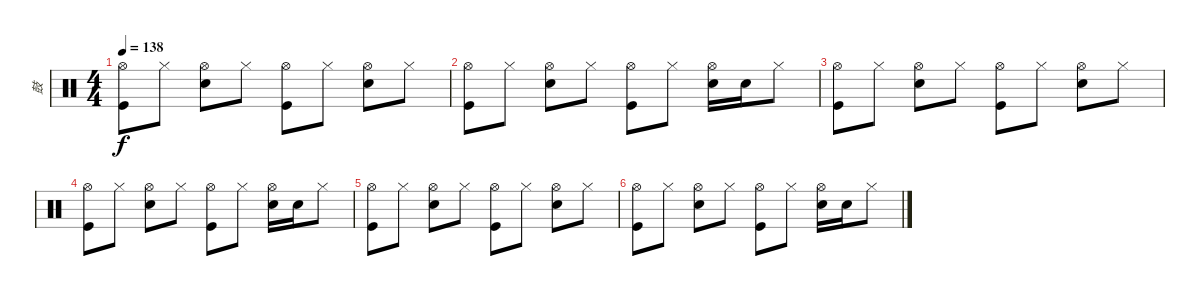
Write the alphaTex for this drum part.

\track ("鼓" "鼓") {instrument percussion}
\staff {score}
\articulation defaults
\ts (4 4)
\tempo 138
\clef neutral
\ks c
("Hi-Hat (open)" "Kick (hit)").8{dy f} "Hi-Hat (closed)".8 ("Hi-Hat (open)" "Snare (hit) 2").8 "Hi-Hat (closed)".8 ("Hi-Hat (open)" "Kick (hit)").8 "Hi-Hat (closed)".8 ("Hi-Hat (open)" "Snare (hit) 2").8 "Hi-Hat (closed)".8 |
("Hi-Hat (open)" "Kick (hit)").8 "Hi-Hat (closed)".8 ("Hi-Hat (open)" "Snare (hit) 2").8 "Hi-Hat (closed)".8 ("Hi-Hat (open)" "Kick (hit)").8 "Hi-Hat (closed)".8 ("Hi-Hat (open)" "Snare (hit) 2").16 "Snare (hit) 2".16 "Hi-Hat (closed)".8 |
("Hi-Hat (open)" "Kick (hit)").8 "Hi-Hat (closed)".8 ("Hi-Hat (open)" "Snare (hit) 2").8 "Hi-Hat (closed)".8 ("Hi-Hat (open)" "Kick (hit)").8 "Hi-Hat (closed)".8 ("Hi-Hat (open)" "Snare (hit) 2").8 "Hi-Hat (closed)".8 |
("Hi-Hat (open)" "Kick (hit)").8 "Hi-Hat (closed)".8 ("Hi-Hat (open)" "Snare (hit) 2").8 "Hi-Hat (closed)".8 ("Hi-Hat (open)" "Kick (hit)").8 "Hi-Hat (closed)".8 ("Hi-Hat (open)" "Snare (hit) 2").16 "Snare (hit) 2".16 "Hi-Hat (closed)".8 |
("Hi-Hat (open)" "Kick (hit)").8 "Hi-Hat (closed)".8 ("Hi-Hat (open)" "Snare (hit) 2").8 "Hi-Hat (closed)".8 ("Hi-Hat (open)" "Kick (hit)").8 "Hi-Hat (closed)".8 ("Hi-Hat (open)" "Snare (hit) 2").8 "Hi-Hat (closed)".8 |
("Hi-Hat (open)" "Kick (hit)").8 "Hi-Hat (closed)".8 ("Hi-Hat (open)" "Snare (hit) 2").8 "Hi-Hat (closed)".8 ("Hi-Hat (open)" "Kick (hit)").8 "Hi-Hat (closed)".8 ("Hi-Hat (open)" "Snare (hit) 2").16 "Snare (hit) 2".16 "Hi-Hat (closed)".8
